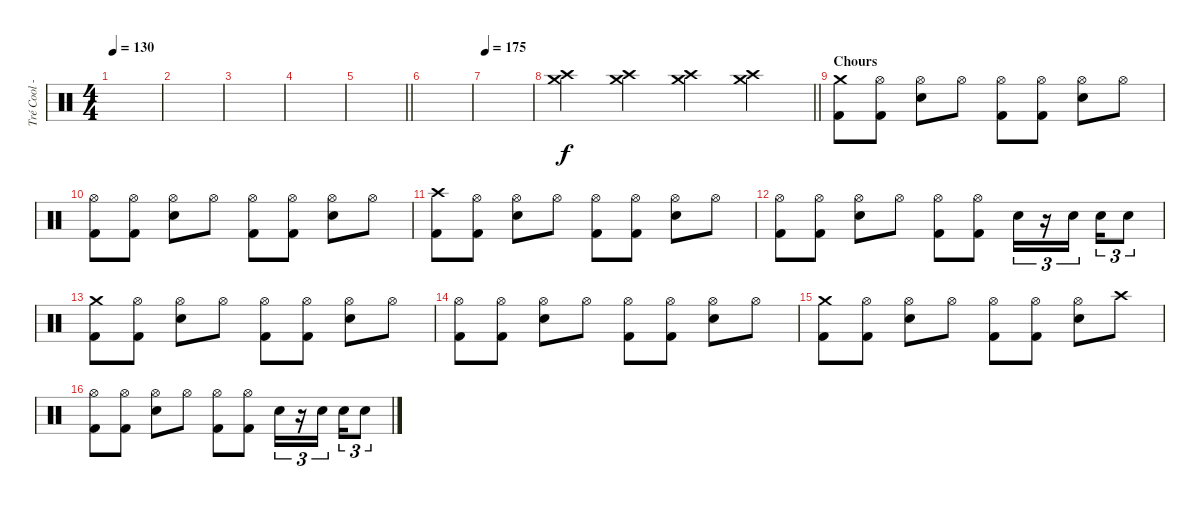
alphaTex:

\track ("Tré Cool - Drums" "Tré Cool -") {instrument percussion}
\staff {score}
\articulation defaults
\ts (4 4)
\tempo 130
\clef neutral
\ks c
|
|
|
|
\barLineRight lightlight
|
|
\tempo 175
|
\barLineRight lightlight
("Crash medium (hit)" "Crash high (hit)").4 ("Crash medium (hit)" "Crash high (hit)").4 ("Crash medium (hit)" "Crash high (hit)").4 ("Crash medium (hit)" "Crash high (hit)").4 |
\section ("" "Chours")
("Crash medium (hit)" "Kick (hit) 2").8 ("Hi-Hat (open)" "Kick (hit) 2").8 ("Hi-Hat (open)" "Electric Snare (hit)").8 "Hi-Hat (open)".8 ("Hi-Hat (open)" "Kick (hit) 2").8 ("Hi-Hat (open)" "Kick (hit) 2").8 ("Hi-Hat (open)" "Electric Snare (hit)").8 "Hi-Hat (open)".8 |
("Hi-Hat (open)" "Kick (hit) 2").8 ("Hi-Hat (open)" "Kick (hit) 2").8 ("Hi-Hat (open)" "Electric Snare (hit)").8 "Hi-Hat (open)".8 ("Hi-Hat (open)" "Kick (hit) 2").8 ("Hi-Hat (open)" "Kick (hit) 2").8 ("Hi-Hat (open)" "Electric Snare (hit)").8 "Hi-Hat (open)".8 |
("Crash high (hit)" "Kick (hit) 2").8 ("Hi-Hat (open)" "Kick (hit) 2").8 ("Hi-Hat (open)" "Electric Snare (hit)").8 "Hi-Hat (open)".8 ("Hi-Hat (open)" "Kick (hit) 2").8 ("Hi-Hat (open)" "Kick (hit) 2").8 ("Hi-Hat (open)" "Electric Snare (hit)").8 "Hi-Hat (open)".8 |
("Hi-Hat (open)" "Kick (hit) 2").8 ("Hi-Hat (open)" "Kick (hit) 2").8 ("Hi-Hat (open)" "Electric Snare (hit)").8 "Hi-Hat (open)".8 ("Hi-Hat (open)" "Kick (hit) 2").8 ("Hi-Hat (open)" "Kick (hit) 2").8 "Electric Snare (hit)".16{tu (3 2)} r.16{tu (3 2)} "Electric Snare (hit)".16{tu (3 2) beam splitsecondary} "Electric Snare (hit)".16{tu (3 2)} "Electric Snare (hit)".8{tu (3 2)} |
("Crash medium (hit)" "Kick (hit) 2").8 ("Hi-Hat (open)" "Kick (hit) 2").8 ("Hi-Hat (open)" "Electric Snare (hit)").8 "Hi-Hat (open)".8 ("Hi-Hat (open)" "Kick (hit) 2").8 ("Hi-Hat (open)" "Kick (hit) 2").8 ("Hi-Hat (open)" "Electric Snare (hit)").8 "Hi-Hat (open)".8 |
("Hi-Hat (open)" "Kick (hit) 2").8 ("Hi-Hat (open)" "Kick (hit) 2").8 ("Hi-Hat (open)" "Electric Snare (hit)").8 "Hi-Hat (open)".8 ("Hi-Hat (open)" "Kick (hit) 2").8 ("Hi-Hat (open)" "Kick (hit) 2").8 ("Hi-Hat (open)" "Electric Snare (hit)").8 "Hi-Hat (open)".8 |
("Crash medium (hit)" "Kick (hit) 2").8 ("Hi-Hat (open)" "Kick (hit) 2").8 ("Hi-Hat (open)" "Electric Snare (hit)").8 "Hi-Hat (open)".8 ("Hi-Hat (open)" "Kick (hit) 2").8 ("Hi-Hat (open)" "Kick (hit) 2").8 ("Hi-Hat (open)" "Electric Snare (hit)").8 "Crash high (hit)".8 |
("Hi-Hat (open)" "Kick (hit) 2").8 ("Hi-Hat (open)" "Kick (hit) 2").8 ("Hi-Hat (open)" "Electric Snare (hit)").8 "Hi-Hat (open)".8 ("Hi-Hat (open)" "Kick (hit) 2").8 ("Hi-Hat (open)" "Kick (hit) 2").8 "Electric Snare (hit)".16{tu (3 2)} r.16{tu (3 2)} "Electric Snare (hit)".16{tu (3 2) beam splitsecondary} "Electric Snare (hit)".16{tu (3 2)} "Electric Snare (hit)".8{tu (3 2)}
